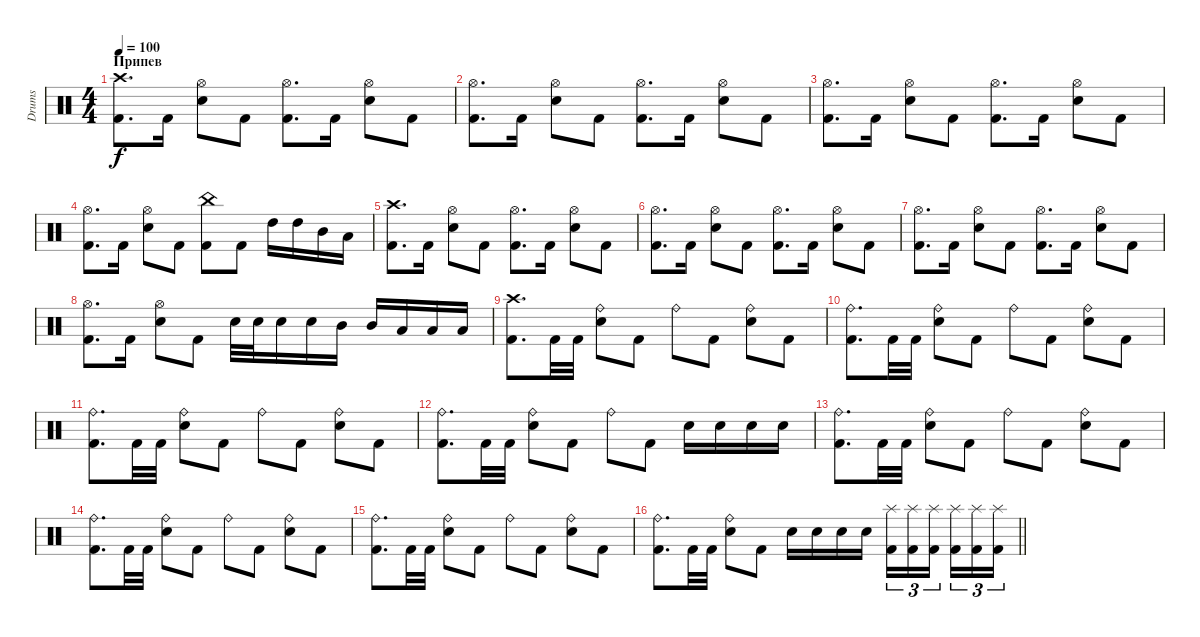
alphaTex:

\track ("Drums" "Drums") {instrument percussion}
\staff {score}
\articulation defaults
\ts (4 4)
\section ("" "Припев")
\tempo 100
\clef neutral
\ks c
("Crash high (hit)" "Kick (hit) 2").8{d dy f} "Kick (hit) 2".16 ("Hi-Hat (open)" "Snare (hit) 2").8 "Kick (hit) 2".8 ("Hi-Hat (open)" "Kick (hit) 2").8{d} "Kick (hit) 2".16 ("Hi-Hat (open)" "Snare (hit) 2").8 "Kick (hit) 2".8 |
("Hi-Hat (open)" "Kick (hit) 2").8{d} "Kick (hit) 2".16 ("Hi-Hat (open)" "Snare (hit) 2").8 "Kick (hit) 2".8 ("Hi-Hat (open)" "Kick (hit) 2").8{d} "Kick (hit) 2".16 ("Hi-Hat (open)" "Snare (hit) 2").8 "Kick (hit) 2".8 |
("Hi-Hat (open)" "Kick (hit) 2").8{d} "Kick (hit) 2".16 ("Hi-Hat (open)" "Snare (hit) 2").8 "Kick (hit) 2".8 ("Hi-Hat (open)" "Kick (hit) 2").8{d} "Kick (hit) 2".16 ("Hi-Hat (open)" "Snare (hit) 2").8 "Kick (hit) 2".8 |
("Hi-Hat (open)" "Kick (hit) 2").8{d} "Kick (hit) 2".16 ("Hi-Hat (open)" "Snare (hit) 2").8 "Kick (hit) 2".8 ("China (hit)" "Kick (hit) 2").8 "Kick (hit) 2".8 "High Tom (hit)".16 "High Tom (hit)".16 "Mid Tom (hit)".16 "Low Tom (hit)".16 |
("Crash high (hit)" "Kick (hit) 2").8{d} "Kick (hit) 2".16 ("Hi-Hat (open)" "Snare (hit) 2").8 "Kick (hit) 2".8 ("Hi-Hat (open)" "Kick (hit) 2").8{d} "Kick (hit) 2".16 ("Hi-Hat (open)" "Snare (hit) 2").8 "Kick (hit) 2".8 |
("Hi-Hat (open)" "Kick (hit) 2").8{d} "Kick (hit) 2".16 ("Hi-Hat (open)" "Snare (hit) 2").8 "Kick (hit) 2".8 ("Hi-Hat (open)" "Kick (hit) 2").8{d} "Kick (hit) 2".16 ("Hi-Hat (open)" "Snare (hit) 2").8 "Kick (hit) 2".8 |
("Hi-Hat (open)" "Kick (hit) 2").8{d} "Kick (hit) 2".16 ("Hi-Hat (open)" "Snare (hit) 2").8 "Kick (hit) 2".8 ("Hi-Hat (open)" "Kick (hit) 2").8{d} "Kick (hit) 2".16 ("Hi-Hat (open)" "Snare (hit) 2").8 "Kick (hit) 2".8 |
("Hi-Hat (open)" "Kick (hit) 2").8{d} "Kick (hit) 2".16 ("Hi-Hat (open)" "Snare (hit) 2").8 "Kick (hit) 2".8 "Snare (hit) 2".32 "Snare (hit) 2".32 "Snare (hit) 2".16 "Snare (hit) 2".16 "Mid Tom (hit)".16 "Mid Tom (hit)".16 "Low Tom (hit)".16 "Low Tom (hit)".16 "Low Tom (hit)".16 |
("Crash high (hit)" "Kick (hit) 2").8{d} "Kick (hit) 2".32 "Kick (hit) 2".32 ("Ride (bell)" "Snare (hit) 2").8 "Kick (hit) 2".8 "Ride (bell)".8 "Kick (hit) 2".8 ("Ride (bell)" "Snare (hit) 2").8 "Kick (hit) 2".8 |
("Ride (bell)" "Kick (hit) 2").8{d} "Kick (hit) 2".32 "Kick (hit) 2".32 ("Ride (bell)" "Snare (hit) 2").8 "Kick (hit) 2".8 "Ride (bell)".8 "Kick (hit) 2".8 ("Ride (bell)" "Snare (hit) 2").8 "Kick (hit) 2".8 |
("Ride (bell)" "Kick (hit) 2").8{d} "Kick (hit) 2".32 "Kick (hit) 2".32 ("Ride (bell)" "Snare (hit) 2").8 "Kick (hit) 2".8 "Ride (bell)".8 "Kick (hit) 2".8 ("Ride (bell)" "Snare (hit) 2").8 "Kick (hit) 2".8 |
("Ride (bell)" "Kick (hit) 2").8{d} "Kick (hit) 2".32 "Kick (hit) 2".32 ("Ride (bell)" "Snare (hit) 2").8 "Kick (hit) 2".8 "Ride (bell)".8 "Kick (hit) 2".8 "Snare (hit) 2".16 "Snare (hit) 2".16 "Snare (hit) 2".16 "Snare (hit) 2".16 |
("Ride (bell)" "Kick (hit) 2").8{d} "Kick (hit) 2".32 "Kick (hit) 2".32 ("Ride (bell)" "Snare (hit) 2").8 "Kick (hit) 2".8 "Ride (bell)".8 "Kick (hit) 2".8 ("Ride (bell)" "Snare (hit) 2").8 "Kick (hit) 2".8 |
("Ride (bell)" "Kick (hit) 2").8{d} "Kick (hit) 2".32 "Kick (hit) 2".32 ("Ride (bell)" "Snare (hit) 2").8 "Kick (hit) 2".8 "Ride (bell)".8 "Kick (hit) 2".8 ("Ride (bell)" "Snare (hit) 2").8 "Kick (hit) 2".8 |
("Ride (bell)" "Kick (hit) 2").8{d} "Kick (hit) 2".32 "Kick (hit) 2".32 ("Ride (bell)" "Snare (hit) 2").8 "Kick (hit) 2".8 "Ride (bell)".8 "Kick (hit) 2".8 ("Ride (bell)" "Snare (hit) 2").8 "Kick (hit) 2".8 |
\barLineRight lightlight
("Ride (bell)" "Kick (hit) 2").8{d} "Kick (hit) 2".32 "Kick (hit) 2".32 ("Ride (bell)" "Snare (hit) 2").8 "Kick (hit) 2".8 "Electric Snare (hit)".16 "Electric Snare (hit)".16 "Electric Snare (hit)".16 "Electric Snare (hit)".16 ("Splash (hit)" "Kick (hit) 2").16{tu (3 2)} ("Splash (hit)" "Kick (hit) 2").16{tu (3 2)} ("Splash (hit)" "Kick (hit) 2").16{tu (3 2) beam splitsecondary} ("Splash (hit)" "Kick (hit) 2").16{tu (3 2)} ("Splash (hit)" "Kick (hit) 2").16{tu (3 2)} ("Splash (hit)" "Kick (hit) 2").16{tu (3 2)}
